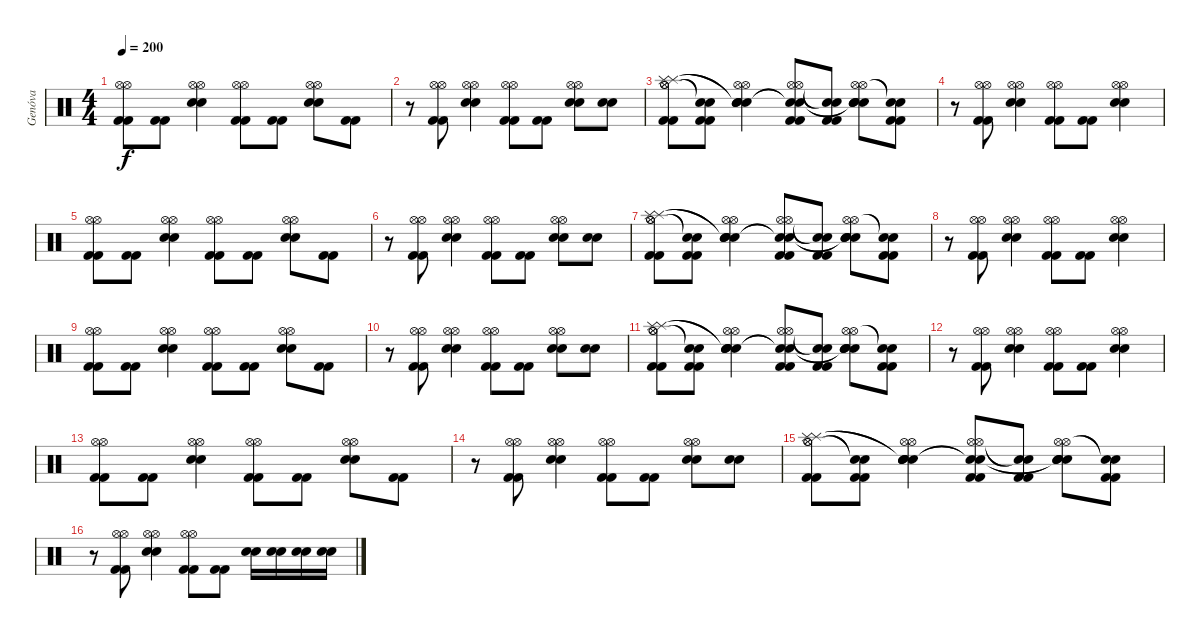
\track ("Genóva" "Genóva") {instrument percussion}
\staff {score}
\articulation defaults
\ts (4 4)
\tempo 200
\clef neutral
\ks c
("Kick (hit) 2" "Kick (hit) 2" "Hi-Hat (open)" "Hi-Hat (open)").8{dy f} ("Kick (hit) 2" "Kick (hit) 2").8 ("Snare (hit) 2" "Snare (hit) 2" "Hi-Hat (open)" "Hi-Hat (open)").4 ("Kick (hit) 2" "Kick (hit) 2" "Hi-Hat (open)" "Hi-Hat (open)").8 ("Kick (hit) 2" "Kick (hit) 2").8 ("Snare (hit) 2" "Snare (hit) 2" "Hi-Hat (open)" "Hi-Hat (open)").8 ("Kick (hit) 2" "Kick (hit) 2").8 |
r.8 ("Kick (hit) 2" "Kick (hit) 2" "Hi-Hat (open)" "Hi-Hat (open)").8 ("Snare (hit) 2" "Snare (hit) 2" "Hi-Hat (open)" "Hi-Hat (open)").4 ("Kick (hit) 2" "Kick (hit) 2" "Hi-Hat (open)" "Hi-Hat (open)").8 ("Kick (hit) 2" "Kick (hit) 2").8 ("Snare (hit) 2" "Snare (hit) 2" "Hi-Hat (open)" "Hi-Hat (open)").8 ("Snare (hit) 2" "Snare (hit) 2").8 |
("Kick (hit) 2" "Kick (hit) 2" "Hi-Hat (open)" "Hi-Hat (open)" "Splash (hit)" "Splash (hit)").8 ("Kick (hit) 2" "Kick (hit) 2" "Snare (hit)"{t} "Snare (hit)"{t}).8 ("Snare (hit) 2" "Snare (hit) 2" "Hi-Hat (open)" "Hi-Hat (open)" "Snare (hit)"{t} "Snare (hit)"{t}).4 ("Kick (hit) 2" "Kick (hit) 2" "Hi-Hat (open)" "Hi-Hat (open)" "Snare (hit)"{t} "Snare (hit)"{t}).8 ("Kick (hit) 2" "Kick (hit) 2" "Snare (hit)"{t} "Snare (hit)"{t}).8 ("Snare (hit) 2" "Snare (hit) 2" "Hi-Hat (open)" "Hi-Hat (open)" "Snare (hit)"{t} "Snare (hit)"{t}).8 ("Kick (hit) 2" "Kick (hit) 2" "Snare (hit)"{t} "Snare (hit)"{t}).8 |
r.8 ("Kick (hit) 2" "Kick (hit) 2" "Hi-Hat (open)" "Hi-Hat (open)").8 ("Snare (hit) 2" "Snare (hit) 2" "Hi-Hat (open)" "Hi-Hat (open)").4 ("Kick (hit) 2" "Kick (hit) 2" "Hi-Hat (open)" "Hi-Hat (open)").8 ("Kick (hit) 2" "Kick (hit) 2").8 ("Snare (hit) 2" "Snare (hit) 2" "Hi-Hat (open)" "Hi-Hat (open)").4 |
("Kick (hit) 2" "Kick (hit) 2" "Hi-Hat (open)" "Hi-Hat (open)").8 ("Kick (hit) 2" "Kick (hit) 2").8 ("Snare (hit) 2" "Snare (hit) 2" "Hi-Hat (open)" "Hi-Hat (open)").4 ("Kick (hit) 2" "Kick (hit) 2" "Hi-Hat (open)" "Hi-Hat (open)").8 ("Kick (hit) 2" "Kick (hit) 2").8 ("Snare (hit) 2" "Snare (hit) 2" "Hi-Hat (open)" "Hi-Hat (open)").8 ("Kick (hit) 2" "Kick (hit) 2").8 |
r.8 ("Kick (hit) 2" "Kick (hit) 2" "Hi-Hat (open)" "Hi-Hat (open)").8 ("Snare (hit) 2" "Snare (hit) 2" "Hi-Hat (open)" "Hi-Hat (open)").4 ("Kick (hit) 2" "Kick (hit) 2" "Hi-Hat (open)" "Hi-Hat (open)").8 ("Kick (hit) 2" "Kick (hit) 2").8 ("Snare (hit) 2" "Snare (hit) 2" "Hi-Hat (open)" "Hi-Hat (open)").8 ("Snare (hit) 2" "Snare (hit) 2").8 |
("Kick (hit) 2" "Kick (hit) 2" "Hi-Hat (open)" "Hi-Hat (open)" "Splash (hit)" "Splash (hit)").8 ("Kick (hit) 2" "Kick (hit) 2" "Snare (hit)"{t} "Snare (hit)"{t}).8 ("Snare (hit) 2" "Snare (hit) 2" "Hi-Hat (open)" "Hi-Hat (open)" "Snare (hit)"{t} "Snare (hit)"{t}).4 ("Kick (hit) 2" "Kick (hit) 2" "Hi-Hat (open)" "Hi-Hat (open)" "Snare (hit)"{t} "Snare (hit)"{t}).8 ("Kick (hit) 2" "Kick (hit) 2" "Snare (hit)"{t} "Snare (hit)"{t}).8 ("Snare (hit) 2" "Snare (hit) 2" "Hi-Hat (open)" "Hi-Hat (open)" "Snare (hit)"{t} "Snare (hit)"{t}).8 ("Kick (hit) 2" "Kick (hit) 2" "Snare (hit)"{t} "Snare (hit)"{t}).8 |
r.8 ("Kick (hit) 2" "Kick (hit) 2" "Hi-Hat (open)" "Hi-Hat (open)").8 ("Snare (hit) 2" "Snare (hit) 2" "Hi-Hat (open)" "Hi-Hat (open)").4 ("Kick (hit) 2" "Kick (hit) 2" "Hi-Hat (open)" "Hi-Hat (open)").8 ("Kick (hit) 2" "Kick (hit) 2").8 ("Snare (hit) 2" "Snare (hit) 2" "Hi-Hat (open)" "Hi-Hat (open)").4 |
("Kick (hit) 2" "Kick (hit) 2" "Hi-Hat (open)" "Hi-Hat (open)").8 ("Kick (hit) 2" "Kick (hit) 2").8 ("Snare (hit) 2" "Snare (hit) 2" "Hi-Hat (open)" "Hi-Hat (open)").4 ("Kick (hit) 2" "Kick (hit) 2" "Hi-Hat (open)" "Hi-Hat (open)").8 ("Kick (hit) 2" "Kick (hit) 2").8 ("Snare (hit) 2" "Snare (hit) 2" "Hi-Hat (open)" "Hi-Hat (open)").8 ("Kick (hit) 2" "Kick (hit) 2").8 |
r.8 ("Kick (hit) 2" "Kick (hit) 2" "Hi-Hat (open)" "Hi-Hat (open)").8 ("Snare (hit) 2" "Snare (hit) 2" "Hi-Hat (open)" "Hi-Hat (open)").4 ("Kick (hit) 2" "Kick (hit) 2" "Hi-Hat (open)" "Hi-Hat (open)").8 ("Kick (hit) 2" "Kick (hit) 2").8 ("Snare (hit) 2" "Snare (hit) 2" "Hi-Hat (open)" "Hi-Hat (open)").8 ("Snare (hit) 2" "Snare (hit) 2").8 |
("Kick (hit) 2" "Kick (hit) 2" "Hi-Hat (open)" "Hi-Hat (open)" "Splash (hit)" "Splash (hit)").8 ("Kick (hit) 2" "Kick (hit) 2" "Snare (hit)"{t} "Snare (hit)"{t}).8 ("Snare (hit) 2" "Snare (hit) 2" "Hi-Hat (open)" "Hi-Hat (open)" "Snare (hit)"{t} "Snare (hit)"{t}).4 ("Kick (hit) 2" "Kick (hit) 2" "Hi-Hat (open)" "Hi-Hat (open)" "Snare (hit)"{t} "Snare (hit)"{t}).8 ("Kick (hit) 2" "Kick (hit) 2" "Snare (hit)"{t} "Snare (hit)"{t}).8 ("Snare (hit) 2" "Snare (hit) 2" "Hi-Hat (open)" "Hi-Hat (open)" "Snare (hit)"{t} "Snare (hit)"{t}).8 ("Kick (hit) 2" "Kick (hit) 2" "Snare (hit)"{t} "Snare (hit)"{t}).8 |
r.8 ("Kick (hit) 2" "Kick (hit) 2" "Hi-Hat (open)" "Hi-Hat (open)").8 ("Snare (hit) 2" "Snare (hit) 2" "Hi-Hat (open)" "Hi-Hat (open)").4 ("Kick (hit) 2" "Kick (hit) 2" "Hi-Hat (open)" "Hi-Hat (open)").8 ("Kick (hit) 2" "Kick (hit) 2").8 ("Snare (hit) 2" "Snare (hit) 2" "Hi-Hat (open)" "Hi-Hat (open)").4 |
("Kick (hit) 2" "Kick (hit) 2" "Hi-Hat (open)" "Hi-Hat (open)").8 ("Kick (hit) 2" "Kick (hit) 2").8 ("Snare (hit) 2" "Snare (hit) 2" "Hi-Hat (open)" "Hi-Hat (open)").4 ("Kick (hit) 2" "Kick (hit) 2" "Hi-Hat (open)" "Hi-Hat (open)").8 ("Kick (hit) 2" "Kick (hit) 2").8 ("Snare (hit) 2" "Snare (hit) 2" "Hi-Hat (open)" "Hi-Hat (open)").8 ("Kick (hit) 2" "Kick (hit) 2").8 |
r.8 ("Kick (hit) 2" "Kick (hit) 2" "Hi-Hat (open)" "Hi-Hat (open)").8 ("Snare (hit) 2" "Snare (hit) 2" "Hi-Hat (open)" "Hi-Hat (open)").4 ("Kick (hit) 2" "Kick (hit) 2" "Hi-Hat (open)" "Hi-Hat (open)").8 ("Kick (hit) 2" "Kick (hit) 2").8 ("Snare (hit) 2" "Snare (hit) 2" "Hi-Hat (open)" "Hi-Hat (open)").8 ("Snare (hit) 2" "Snare (hit) 2").8 |
("Kick (hit) 2" "Kick (hit) 2" "Hi-Hat (open)" "Hi-Hat (open)" "Splash (hit)" "Splash (hit)").8 ("Kick (hit) 2" "Kick (hit) 2" "Snare (hit)"{t} "Snare (hit)"{t}).8 ("Snare (hit) 2" "Snare (hit) 2" "Hi-Hat (open)" "Hi-Hat (open)" "Snare (hit)"{t} "Snare (hit)"{t}).4 ("Kick (hit) 2" "Kick (hit) 2" "Hi-Hat (open)" "Hi-Hat (open)" "Snare (hit)"{t} "Snare (hit)"{t}).8 ("Kick (hit) 2" "Kick (hit) 2" "Snare (hit)"{t} "Snare (hit)"{t}).8 ("Snare (hit) 2" "Snare (hit) 2" "Hi-Hat (open)" "Hi-Hat (open)" "Snare (hit)"{t} "Snare (hit)"{t}).8 ("Kick (hit) 2" "Kick (hit) 2" "Snare (hit)"{t} "Snare (hit)"{t}).8 |
r.8 ("Kick (hit) 2" "Kick (hit) 2" "Hi-Hat (open)" "Hi-Hat (open)").8 ("Snare (hit) 2" "Snare (hit) 2" "Hi-Hat (open)" "Hi-Hat (open)").4 ("Kick (hit) 2" "Kick (hit) 2" "Hi-Hat (open)" "Hi-Hat (open)").8 ("Kick (hit) 2" "Kick (hit) 2").8 ("Snare (hit) 2" "Snare (hit) 2").16 ("Snare (hit) 2" "Snare (hit) 2").16 ("Snare (hit) 2" "Snare (hit) 2").16 ("Snare (hit) 2" "Snare (hit) 2").16
